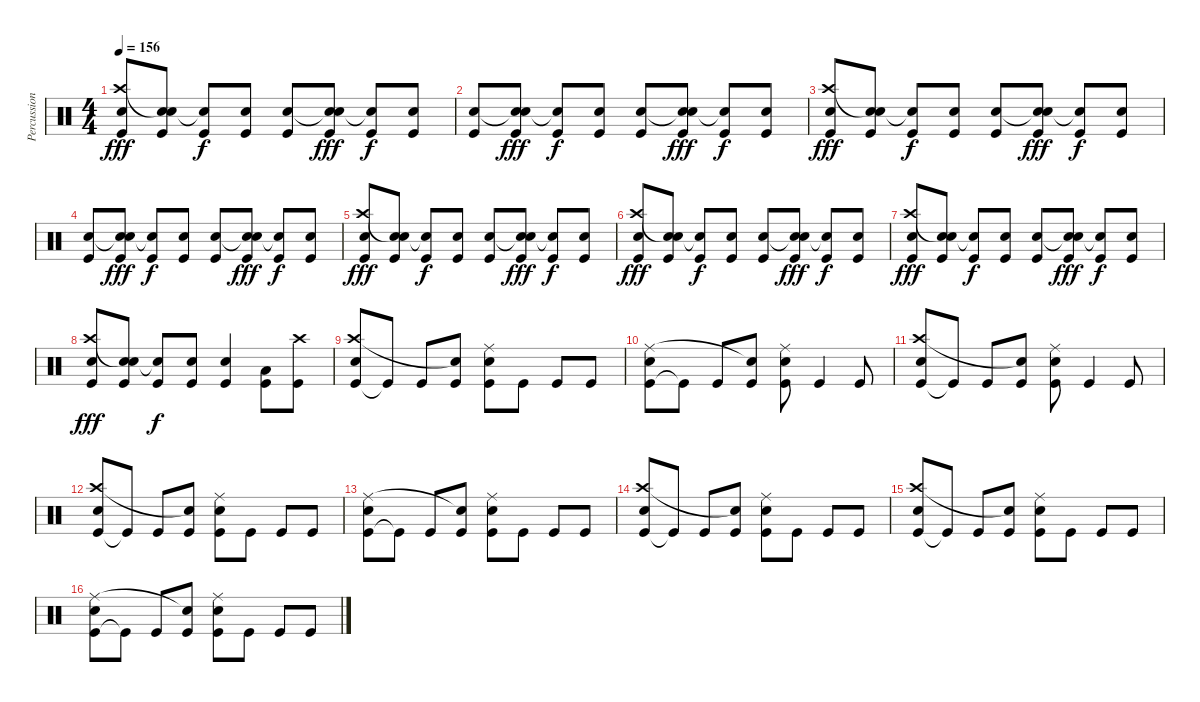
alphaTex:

\track ("Percussion" "Percussion") {instrument percussion}
\staff {score}
\articulation defaults
\ts (4 4)
\tempo 156
\clef neutral
\ks c
("Kick (hit)" "Crash high (hit)" "Electric Snare (hit)").8{dy fff} ("Kick (hit)" "Snare (hit)"{t} "Electric Snare (hit)").8 ("Kick (hit)" "Electric Snare (hit)"{t}).8{dy f} ("Kick (hit)" "Electric Snare (hit)").8 ("Kick (hit)" "Electric Snare (hit)").8 ("Kick (hit)" "Snare (hit)"{t} "Electric Snare (hit)").8{dy fff} ("Kick (hit)" "Electric Snare (hit)"{t}).8{dy f} ("Kick (hit)" "Electric Snare (hit)").8 |
("Kick (hit)" "Electric Snare (hit)").8 ("Kick (hit)" "Snare (hit)"{t} "Electric Snare (hit)").8{dy fff} ("Kick (hit)" "Electric Snare (hit)"{t}).8{dy f} ("Kick (hit)" "Electric Snare (hit)").8 ("Kick (hit)" "Electric Snare (hit)").8 ("Kick (hit)" "Snare (hit)"{t} "Electric Snare (hit)").8{dy fff} ("Kick (hit)" "Electric Snare (hit)"{t}).8{dy f} ("Kick (hit)" "Electric Snare (hit)").8 |
("Kick (hit)" "Crash high (hit)" "Electric Snare (hit)").8{dy fff} ("Kick (hit)" "Snare (hit)"{t} "Electric Snare (hit)").8 ("Kick (hit)" "Electric Snare (hit)"{t}).8{dy f} ("Kick (hit)" "Electric Snare (hit)").8 ("Kick (hit)" "Electric Snare (hit)").8 ("Kick (hit)" "Snare (hit)"{t} "Electric Snare (hit)").8{dy fff} ("Kick (hit)" "Electric Snare (hit)"{t}).8{dy f} ("Kick (hit)" "Electric Snare (hit)").8 |
("Kick (hit)" "Electric Snare (hit)").8 ("Kick (hit)" "Snare (hit)"{t} "Electric Snare (hit)").8{dy fff} ("Kick (hit)" "Electric Snare (hit)"{t}).8{dy f} ("Kick (hit)" "Electric Snare (hit)").8 ("Kick (hit)" "Electric Snare (hit)").8 ("Kick (hit)" "Snare (hit)"{t} "Electric Snare (hit)").8{dy fff} ("Kick (hit)" "Electric Snare (hit)"{t}).8{dy f} ("Kick (hit)" "Electric Snare (hit)").8 |
("Kick (hit)" "Crash high (hit)" "Electric Snare (hit)").8{dy fff} ("Kick (hit)" "Snare (hit)"{t} "Electric Snare (hit)").8 ("Kick (hit)" "Electric Snare (hit)"{t}).8{dy f} ("Kick (hit)" "Electric Snare (hit)").8 ("Kick (hit)" "Electric Snare (hit)").8 ("Kick (hit)" "Snare (hit)"{t} "Electric Snare (hit)").8{dy fff} ("Kick (hit)" "Electric Snare (hit)"{t}).8{dy f} ("Kick (hit)" "Electric Snare (hit)").8 |
("Kick (hit)" "Crash high (hit)" "Electric Snare (hit)").8{dy fff} ("Kick (hit)" "Snare (hit)"{t} "Electric Snare (hit)").8 ("Kick (hit)" "Electric Snare (hit)"{t}).8{dy f} ("Kick (hit)" "Electric Snare (hit)").8 ("Kick (hit)" "Electric Snare (hit)").8 ("Kick (hit)" "Snare (hit)"{t} "Electric Snare (hit)").8{dy fff} ("Kick (hit)" "Electric Snare (hit)"{t}).8{dy f} ("Kick (hit)" "Electric Snare (hit)").8 |
("Kick (hit)" "Crash high (hit)" "Electric Snare (hit)").8{dy fff} ("Kick (hit)" "Snare (hit)"{t} "Electric Snare (hit)").8 ("Kick (hit)" "Electric Snare (hit)"{t}).8{dy f} ("Kick (hit)" "Electric Snare (hit)").8 ("Kick (hit)" "Electric Snare (hit)").8 ("Kick (hit)" "Snare (hit)"{t} "Electric Snare (hit)").8{dy fff} ("Kick (hit)" "Electric Snare (hit)"{t}).8{dy f} ("Kick (hit)" "Electric Snare (hit)").8 |
("Kick (hit)" "Crash high (hit)" "Electric Snare (hit)").8{dy fff} ("Kick (hit)" "Snare (hit)"{t} "Electric Snare (hit)").8 ("Kick (hit)" "Electric Snare (hit)"{t}).8{dy f} ("Kick (hit)" "Electric Snare (hit)").8 ("Kick (hit)" "Electric Snare (hit)").4 ("Kick (hit)" "Low Tom (hit)").8 ("Kick (hit)" "Crash high (hit)").8 |
("Kick (hit)" "Crash high (hit)" "Electric Snare (hit)").8 "Kick (hit)"{t}.8 "Kick (hit)".8 ("Kick (hit)" "Snare (hit)"{t}).8 ("Kick (hit)" "Ride (middle)" "Electric Snare (hit)").8 "Kick (hit)".8 "Kick (hit)".8 "Kick (hit)".8 |
("Kick (hit)" "Ride (middle)" "Electric Snare (hit)").8 "Kick (hit)"{t}.8 "Kick (hit)".8 ("Kick (hit)" "Snare (hit)"{t}).8 ("Kick (hit)" "Ride (middle)" "Electric Snare (hit)").8 "Kick (hit)".4 "Kick (hit)".8 |
("Kick (hit)" "Crash high (hit)" "Electric Snare (hit)").8 "Kick (hit)"{t}.8 "Kick (hit)".8 ("Kick (hit)" "Snare (hit)"{t}).8 ("Kick (hit)" "Ride (middle)" "Electric Snare (hit)").8 "Kick (hit)".4 "Kick (hit)".8 |
("Kick (hit)" "Crash high (hit)" "Electric Snare (hit)").8 "Kick (hit)"{t}.8 "Kick (hit)".8 ("Kick (hit)" "Snare (hit)"{t}).8 ("Kick (hit)" "Ride (middle)" "Electric Snare (hit)").8 "Kick (hit)".8 "Kick (hit)".8 "Kick (hit)".8 |
("Kick (hit)" "Ride (middle)" "Electric Snare (hit)").8 "Kick (hit)"{t}.8 "Kick (hit)".8 ("Kick (hit)" "Snare (hit)"{t}).8 ("Kick (hit)" "Ride (middle)" "Electric Snare (hit)").8 "Kick (hit)".8 "Kick (hit)".8 "Kick (hit)".8 |
("Kick (hit)" "Crash high (hit)" "Electric Snare (hit)").8 "Kick (hit)"{t}.8 "Kick (hit)".8 ("Kick (hit)" "Snare (hit)"{t}).8 ("Kick (hit)" "Ride (middle)" "Electric Snare (hit)").8 "Kick (hit)".8 "Kick (hit)".8 "Kick (hit)".8 |
("Kick (hit)" "Crash high (hit)" "Electric Snare (hit)").8 "Kick (hit)"{t}.8 "Kick (hit)".8 ("Kick (hit)" "Snare (hit)"{t}).8 ("Kick (hit)" "Ride (middle)" "Electric Snare (hit)").8 "Kick (hit)".8 "Kick (hit)".8 "Kick (hit)".8 |
("Kick (hit)" "Ride (middle)" "Electric Snare (hit)").8 "Kick (hit)"{t}.8 "Kick (hit)".8 ("Kick (hit)" "Snare (hit)"{t}).8 ("Kick (hit)" "Ride (middle)" "Electric Snare (hit)").8 "Kick (hit)".8 "Kick (hit)".8 "Kick (hit)".8
